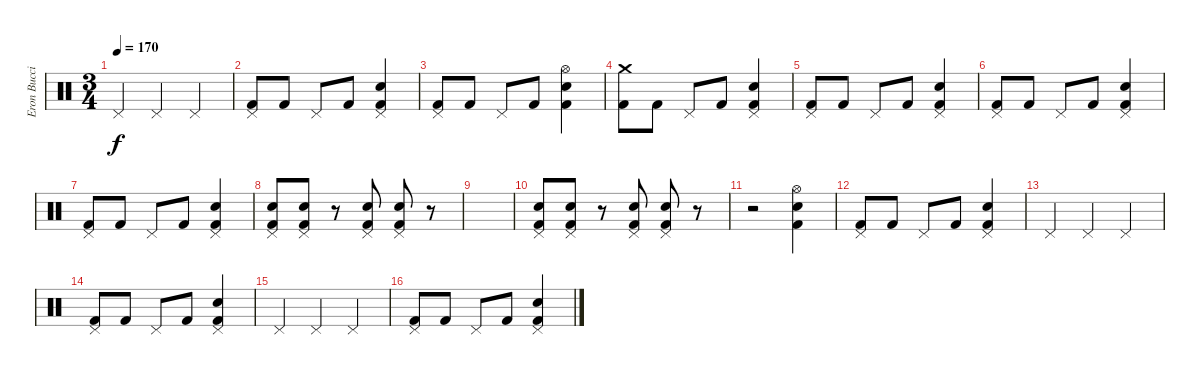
\track ("Eron Bucciarelli (Drums)" "Eron Bucci") {instrument percussion}
\staff {score}
\articulation defaults
\ts (3 4)
\tempo 170
\clef neutral
\ks c "Pedal Hi-Hat (hit)".4{dy f} "Pedal Hi-Hat (hit)".4 "Pedal Hi-Hat (hit)".4
|
("Pedal Hi-Hat (hit)" "Kick (hit) 2").8 "Kick (hit) 2".8 "Pedal Hi-Hat (hit)".8 "Kick (hit) 2".8 ("Pedal Hi-Hat (hit)" "Snare (hit) 2" "Kick (hit) 2").4 |
("Pedal Hi-Hat (hit)" "Kick (hit) 2").8 "Kick (hit) 2".8 "Pedal Hi-Hat (hit)".8 "Kick (hit) 2".8 ("Hi-Hat (open)" "Snare (hit) 2" "Kick (hit) 2").4 |
("Crash medium (hit)" "Kick (hit) 2").8 "Kick (hit) 2".8 "Pedal Hi-Hat (hit)".8 "Kick (hit) 2".8 ("Pedal Hi-Hat (hit)" "Snare (hit) 2" "Kick (hit) 2").4 |
("Pedal Hi-Hat (hit)" "Kick (hit) 2").8 "Kick (hit) 2".8 "Pedal Hi-Hat (hit)".8 "Kick (hit) 2".8 ("Pedal Hi-Hat (hit)" "Snare (hit) 2" "Kick (hit) 2").4 |
("Pedal Hi-Hat (hit)" "Kick (hit) 2").8 "Kick (hit) 2".8 "Pedal Hi-Hat (hit)".8 "Kick (hit) 2".8 ("Pedal Hi-Hat (hit)" "Snare (hit) 2" "Kick (hit) 2").4 |
("Pedal Hi-Hat (hit)" "Kick (hit) 2").8 "Kick (hit) 2".8 "Pedal Hi-Hat (hit)".8 "Kick (hit) 2".8 ("Pedal Hi-Hat (hit)" "Snare (hit) 2" "Kick (hit) 2").4 |
("Pedal Hi-Hat (hit)" "Snare (hit) 2" "Kick (hit) 2").8 ("Pedal Hi-Hat (hit)" "Snare (hit) 2" "Kick (hit) 2").8 r.8 ("Pedal Hi-Hat (hit)" "Snare (hit) 2" "Kick (hit) 2").8 ("Pedal Hi-Hat (hit)" "Snare (hit) 2" "Kick (hit) 2").8 r.8 |
|
("Pedal Hi-Hat (hit)" "Snare (hit) 2" "Kick (hit) 2").8 ("Pedal Hi-Hat (hit)" "Snare (hit) 2" "Kick (hit) 2").8 r.8 ("Pedal Hi-Hat (hit)" "Snare (hit) 2" "Kick (hit) 2").8 ("Pedal Hi-Hat (hit)" "Snare (hit) 2" "Kick (hit) 2").8 r.8 |
r.2 ("Hi-Hat (open)" "Snare (hit) 2" "Kick (hit) 2").4 |
("Pedal Hi-Hat (hit)" "Kick (hit) 2").8 "Kick (hit) 2".8 "Pedal Hi-Hat (hit)".8 "Kick (hit) 2".8 ("Pedal Hi-Hat (hit)" "Snare (hit) 2" "Kick (hit) 2").4 |
"Pedal Hi-Hat (hit)".4 "Pedal Hi-Hat (hit)".4 "Pedal Hi-Hat (hit)".4 |
("Pedal Hi-Hat (hit)" "Kick (hit) 2").8 "Kick (hit) 2".8 "Pedal Hi-Hat (hit)".8 "Kick (hit) 2".8 ("Pedal Hi-Hat (hit)" "Snare (hit) 2" "Kick (hit) 2").4 |
"Pedal Hi-Hat (hit)".4 "Pedal Hi-Hat (hit)".4 "Pedal Hi-Hat (hit)".4 |
("Pedal Hi-Hat (hit)" "Kick (hit) 2").8 "Kick (hit) 2".8 "Pedal Hi-Hat (hit)".8 "Kick (hit) 2".8 ("Pedal Hi-Hat (hit)" "Snare (hit) 2" "Kick (hit) 2").4
